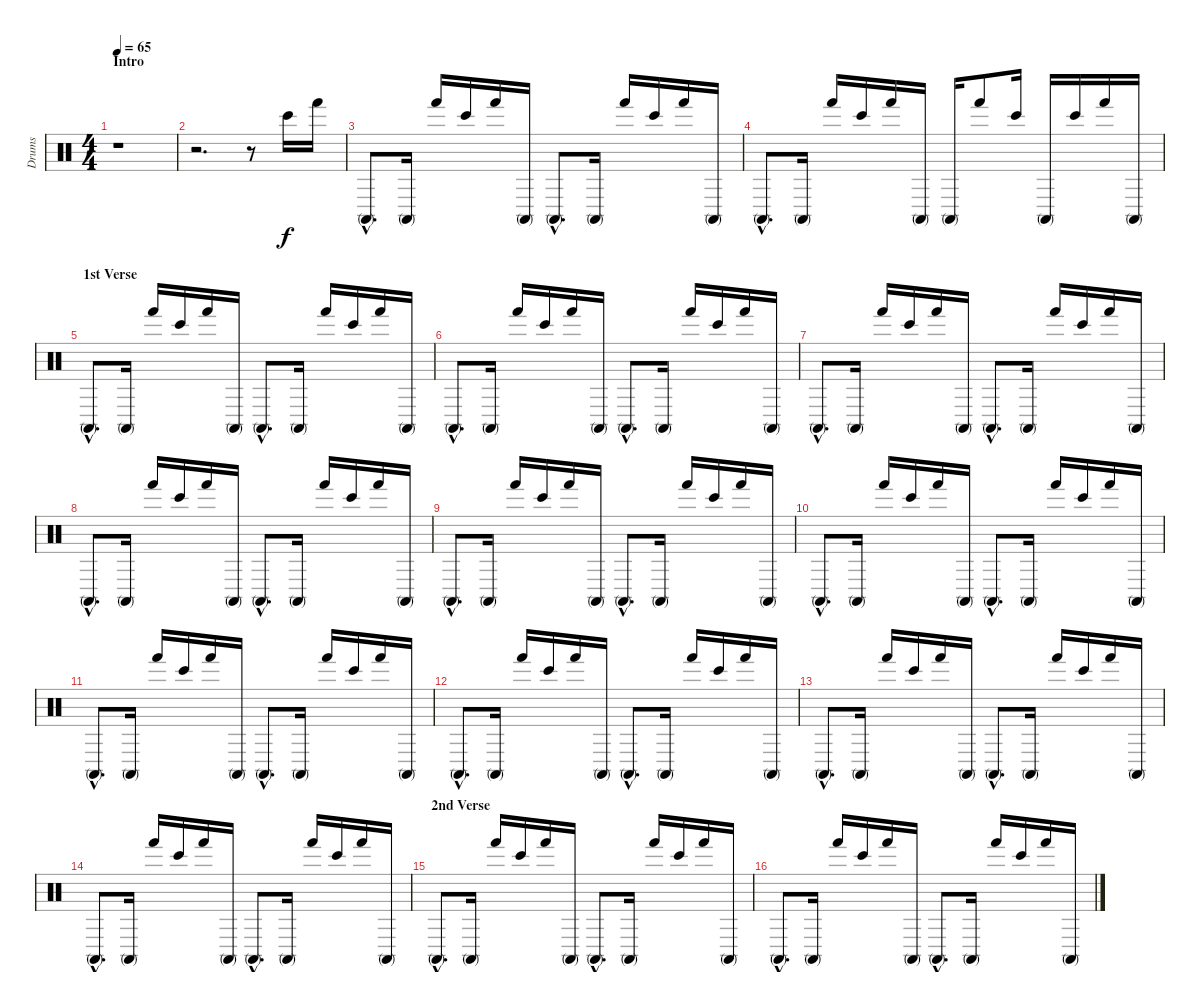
\track ("Drums" "Drums") {instrument percussion}
\staff {score}
\articulation defaults
\ts (4 4)
\section ("" "Intro")
\tempo 65
\clef neutral
\ks c
r.1{dy f} |
r.2{d} r.8 "Bongo High (hit)".16 "Hand (hit)".16 |
"Conga high (mute)"{hac}.8{d} "Conga high (mute)".16 "Hand (hit)".16 "Bongo High (hit)".16 "Hand (hit)".16 "Conga high (mute)".16 "Conga high (mute)"{hac}.8{d} "Conga high (mute)".16 "Hand (hit)".16 "Bongo High (hit)".16 "Hand (hit)".16 "Conga high (mute)".16 |
"Conga high (mute)"{hac}.8{d} "Conga high (mute)".16 "Hand (hit)".16 "Bongo High (hit)".16 "Hand (hit)".16 "Conga high (mute)".16 "Conga high (mute)".16 "Hand (hit)".8 "Bongo High (hit)".16 "Conga high (mute)".16 "Bongo High (hit)".16 "Hand (hit)".16 "Conga high (mute)".16 |
\section ("" "1st Verse")
"Conga high (mute)"{hac}.8{d} "Conga high (mute)".16 "Hand (hit)".16 "Bongo High (hit)".16 "Hand (hit)".16 "Conga high (mute)".16 "Conga high (mute)"{hac}.8{d} "Conga high (mute)".16 "Hand (hit)".16 "Bongo High (hit)".16 "Hand (hit)".16 "Conga high (mute)".16 |
"Conga high (mute)"{hac}.8{d} "Conga high (mute)".16 "Hand (hit)".16 "Bongo High (hit)".16 "Hand (hit)".16 "Conga high (mute)".16 "Conga high (mute)"{hac}.8{d} "Conga high (mute)".16 "Hand (hit)".16 "Bongo High (hit)".16 "Hand (hit)".16 "Conga high (mute)".16 |
"Conga high (mute)"{hac}.8{d} "Conga high (mute)".16 "Hand (hit)".16 "Bongo High (hit)".16 "Hand (hit)".16 "Conga high (mute)".16 "Conga high (mute)"{hac}.8{d} "Conga high (mute)".16 "Hand (hit)".16 "Bongo High (hit)".16 "Hand (hit)".16 "Conga high (mute)".16 |
"Conga high (mute)"{hac}.8{d} "Conga high (mute)".16 "Hand (hit)".16 "Bongo High (hit)".16 "Hand (hit)".16 "Conga high (mute)".16 "Conga high (mute)"{hac}.8{d} "Conga high (mute)".16 "Hand (hit)".16 "Bongo High (hit)".16 "Hand (hit)".16 "Conga high (mute)".16 |
"Conga high (mute)"{hac}.8{d} "Conga high (mute)".16 "Hand (hit)".16 "Bongo High (hit)".16 "Hand (hit)".16 "Conga high (mute)".16 "Conga high (mute)"{hac}.8{d} "Conga high (mute)".16 "Hand (hit)".16 "Bongo High (hit)".16 "Hand (hit)".16 "Conga high (mute)".16 |
"Conga high (mute)"{hac}.8{d} "Conga high (mute)".16 "Hand (hit)".16 "Bongo High (hit)".16 "Hand (hit)".16 "Conga high (mute)".16 "Conga high (mute)"{hac}.8{d} "Conga high (mute)".16 "Hand (hit)".16 "Bongo High (hit)".16 "Hand (hit)".16 "Conga high (mute)".16 |
"Conga high (mute)"{hac}.8{d} "Conga high (mute)".16 "Hand (hit)".16 "Bongo High (hit)".16 "Hand (hit)".16 "Conga high (mute)".16 "Conga high (mute)"{hac}.8{d} "Conga high (mute)".16 "Hand (hit)".16 "Bongo High (hit)".16 "Hand (hit)".16 "Conga high (mute)".16 |
"Conga high (mute)"{hac}.8{d} "Conga high (mute)".16 "Hand (hit)".16 "Bongo High (hit)".16 "Hand (hit)".16 "Conga high (mute)".16 "Conga high (mute)"{hac}.8{d} "Conga high (mute)".16 "Hand (hit)".16 "Bongo High (hit)".16 "Hand (hit)".16 "Conga high (mute)".16 |
"Conga high (mute)"{hac}.8{d} "Conga high (mute)".16 "Hand (hit)".16 "Bongo High (hit)".16 "Hand (hit)".16 "Conga high (mute)".16 "Conga high (mute)"{hac}.8{d} "Conga high (mute)".16 "Hand (hit)".16 "Bongo High (hit)".16 "Hand (hit)".16 "Conga high (mute)".16 |
"Conga high (mute)"{hac}.8{d} "Conga high (mute)".16 "Hand (hit)".16 "Bongo High (hit)".16 "Hand (hit)".16 "Conga high (mute)".16 "Conga high (mute)"{hac}.8{d} "Conga high (mute)".16 "Hand (hit)".16 "Bongo High (hit)".16 "Hand (hit)".16 "Conga high (mute)".16 |
\section ("" "2nd Verse")
"Conga high (mute)"{hac}.8{d} "Conga high (mute)".16 "Hand (hit)".16 "Bongo High (hit)".16 "Hand (hit)".16 "Conga high (mute)".16 "Conga high (mute)"{hac}.8{d} "Conga high (mute)".16 "Hand (hit)".16 "Bongo High (hit)".16 "Hand (hit)".16 "Conga high (mute)".16 |
"Conga high (mute)"{hac}.8{d} "Conga high (mute)".16 "Hand (hit)".16 "Bongo High (hit)".16 "Hand (hit)".16 "Conga high (mute)".16 "Conga high (mute)"{hac}.8{d} "Conga high (mute)".16 "Hand (hit)".16 "Bongo High (hit)".16 "Hand (hit)".16 "Conga high (mute)".16
